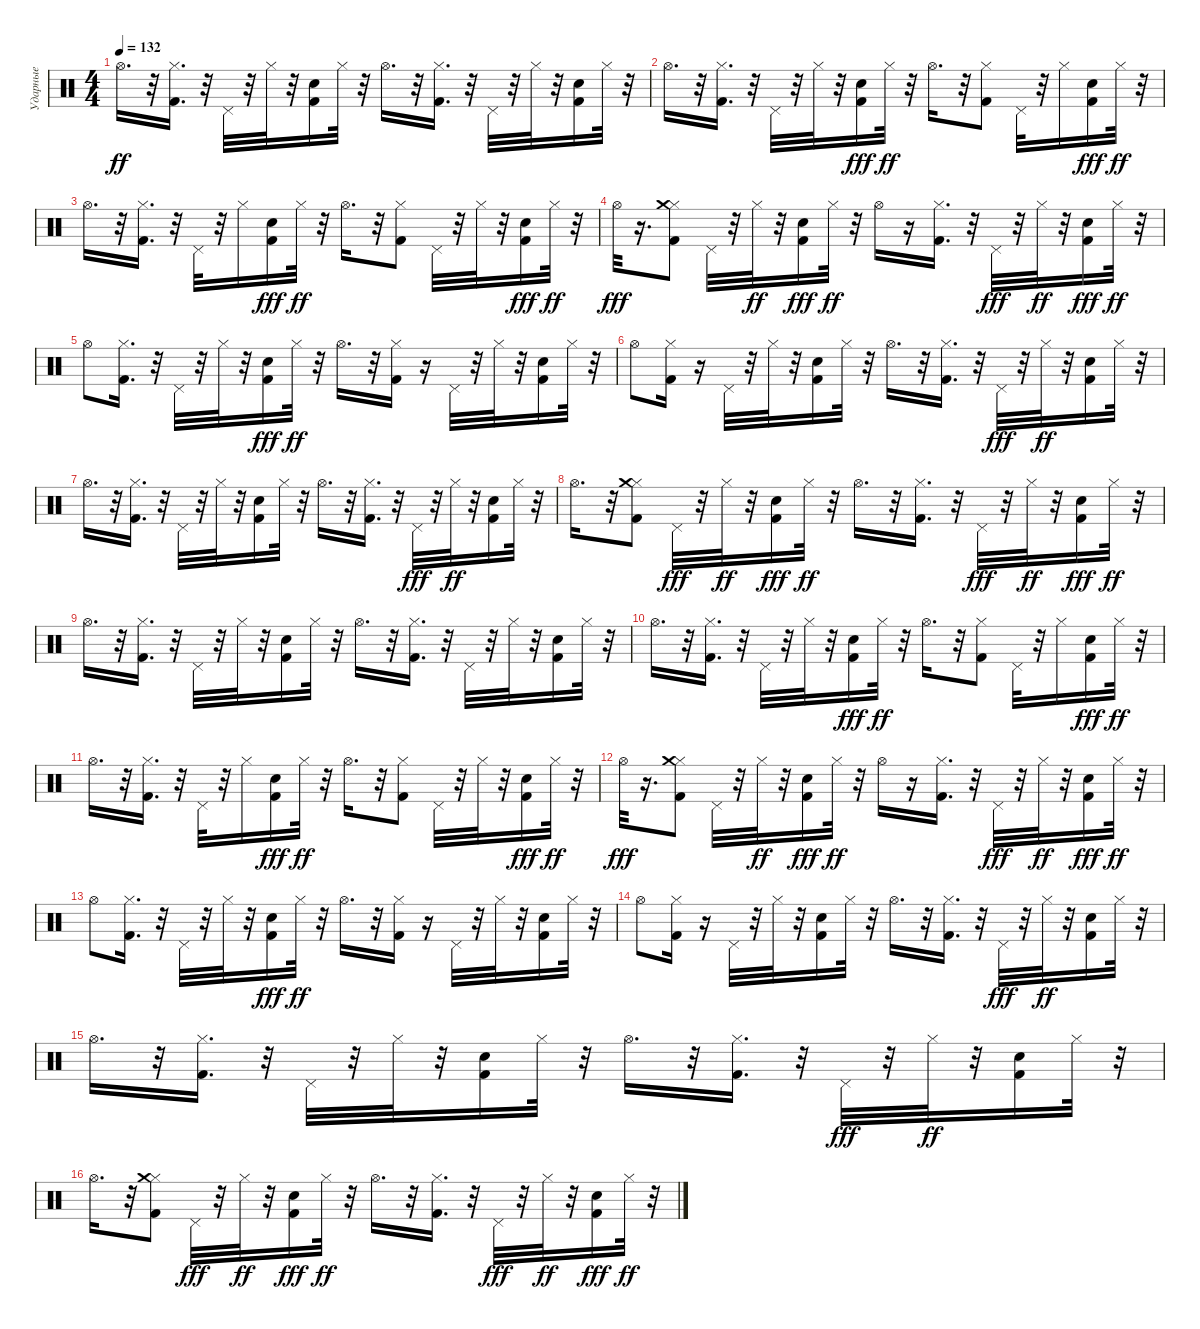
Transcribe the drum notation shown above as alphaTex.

\track ("Ударные" "Ударные") {instrument percussion}
\staff {score}
\articulation defaults
\ts (4 4)
\tempo 132
\clef neutral
\ks c "Hi-Hat (open)".16{d dy ff}
r.32 ("Kick (hit) 2" "Hi-Hat (closed)").16{d} r.32 "Pedal Hi-Hat (hit)".32 r.32 "Hi-Hat (closed)".32 r.32 ("Kick (hit) 2" "Snare (hit) 2").16 "Hi-Hat (closed)".32 r.32 "Hi-Hat (open)".16{d} r.32 ("Kick (hit) 2" "Hi-Hat (closed)").16{d} r.32 "Pedal Hi-Hat (hit)".32 r.32 "Hi-Hat (closed)".32 r.32 ("Kick (hit) 2" "Snare (hit) 2").16 "Hi-Hat (closed)".32 r.32 |
"Hi-Hat (open)".16{d} r.32 ("Kick (hit) 2" "Hi-Hat (closed)").16{d} r.32 "Pedal Hi-Hat (hit)".32 r.32 "Hi-Hat (closed)".32 r.32 ("Kick (hit) 2" "Snare (hit) 2").16{dy fff} "Hi-Hat (closed)".32{dy ff} r.32 "Hi-Hat (open)".16{d} r.32 ("Kick (hit) 2" "Hi-Hat (closed)").8 "Pedal Hi-Hat (hit)".32 r.32 "Hi-Hat (closed)".16 ("Kick (hit) 2" "Snare (hit) 2").16{dy fff} "Hi-Hat (closed)".32{dy ff} r.32 |
"Hi-Hat (open)".16{d} r.32 ("Kick (hit) 2" "Hi-Hat (closed)").16{d} r.32 "Pedal Hi-Hat (hit)".32 r.32 "Hi-Hat (closed)".16 ("Kick (hit) 2" "Snare (hit) 2").16{dy fff} "Hi-Hat (closed)".32{dy ff} r.32 "Hi-Hat (open)".16{d} r.32 ("Kick (hit) 2" "Hi-Hat (closed)").8 "Pedal Hi-Hat (hit)".32 r.32 "Hi-Hat (closed)".32 r.32 ("Kick (hit) 2" "Snare (hit) 2").16{dy fff} "Hi-Hat (closed)".32{dy ff} r.32 |
"Hi-Hat (open)".32{dy fff} r.16{d} ("Kick (hit) 2" "Hi-Hat (closed)" "Crash medium (hit)").8 "Pedal Hi-Hat (hit)".32 r.32 "Hi-Hat (closed)".32{dy ff} r.32 ("Kick (hit) 2" "Snare (hit) 2").16{dy fff} "Hi-Hat (closed)".32{dy ff} r.32 "Hi-Hat (open)".16 r.16 ("Kick (hit) 2" "Hi-Hat (closed)").16{d} r.32 "Pedal Hi-Hat (hit)".32{dy fff} r.32 "Hi-Hat (closed)".32{dy ff} r.32 ("Kick (hit) 2" "Snare (hit) 2").16{dy fff} "Hi-Hat (closed)".32{dy ff} r.32 |
"Hi-Hat (open)".8 ("Kick (hit) 2" "Hi-Hat (closed)").16{d} r.32 "Pedal Hi-Hat (hit)".32 r.32 "Hi-Hat (closed)".32 r.32 ("Kick (hit) 2" "Snare (hit) 2").16{dy fff} "Hi-Hat (closed)".32{dy ff} r.32 "Hi-Hat (open)".16{d} r.32 ("Kick (hit) 2" "Hi-Hat (closed)").16 r.16 "Pedal Hi-Hat (hit)".32 r.32 "Hi-Hat (closed)".32 r.32 ("Kick (hit) 2" "Snare (hit) 2").16 "Hi-Hat (closed)".32 r.32 |
"Hi-Hat (open)".8 ("Kick (hit) 2" "Hi-Hat (closed)").16 r.16 "Pedal Hi-Hat (hit)".32 r.32 "Hi-Hat (closed)".32 r.32 ("Kick (hit) 2" "Snare (hit) 2").16 "Hi-Hat (closed)".32 r.32 "Hi-Hat (open)".16{d} r.32 ("Kick (hit) 2" "Hi-Hat (closed)").16{d} r.32 "Pedal Hi-Hat (hit)".32{dy fff} r.32 "Hi-Hat (closed)".32{dy ff} r.32 ("Kick (hit) 2" "Snare (hit) 2").16 "Hi-Hat (closed)".32 r.32 |
"Hi-Hat (open)".16{d} r.32 ("Kick (hit) 2" "Hi-Hat (closed)").16{d} r.32 "Pedal Hi-Hat (hit)".32 r.32 "Hi-Hat (closed)".32 r.32 ("Kick (hit) 2" "Snare (hit) 2").16 "Hi-Hat (closed)".32 r.32 "Hi-Hat (open)".16{d} r.32 ("Kick (hit) 2" "Hi-Hat (closed)").16{d} r.32 "Pedal Hi-Hat (hit)".32{dy fff} r.32 "Hi-Hat (closed)".32{dy ff} r.32 ("Kick (hit) 2" "Snare (hit) 2").16 "Hi-Hat (closed)".32 r.32 |
"Hi-Hat (open)".16{d} r.32 ("Kick (hit) 2" "Hi-Hat (closed)" "Crash medium (hit)").8 "Pedal Hi-Hat (hit)".32{dy fff} r.32 "Hi-Hat (closed)".32{dy ff} r.32 ("Kick (hit) 2" "Snare (hit) 2").16{dy fff} "Hi-Hat (closed)".32{dy ff} r.32 "Hi-Hat (open)".16{d} r.32 ("Kick (hit) 2" "Hi-Hat (closed)").16{d} r.32 "Pedal Hi-Hat (hit)".32{dy fff} r.32 "Hi-Hat (closed)".32{dy ff} r.32 ("Kick (hit) 2" "Snare (hit) 2").16{dy fff} "Hi-Hat (closed)".32{dy ff} r.32 |
"Hi-Hat (open)".16{d} r.32 ("Kick (hit) 2" "Hi-Hat (closed)").16{d} r.32 "Pedal Hi-Hat (hit)".32 r.32 "Hi-Hat (closed)".32 r.32 ("Kick (hit) 2" "Snare (hit) 2").16 "Hi-Hat (closed)".32 r.32 "Hi-Hat (open)".16{d} r.32 ("Kick (hit) 2" "Hi-Hat (closed)").16{d} r.32 "Pedal Hi-Hat (hit)".32 r.32 "Hi-Hat (closed)".32 r.32 ("Kick (hit) 2" "Snare (hit) 2").16 "Hi-Hat (closed)".32 r.32 |
"Hi-Hat (open)".16{d} r.32 ("Kick (hit) 2" "Hi-Hat (closed)").16{d} r.32 "Pedal Hi-Hat (hit)".32 r.32 "Hi-Hat (closed)".32 r.32 ("Kick (hit) 2" "Snare (hit) 2").16{dy fff} "Hi-Hat (closed)".32{dy ff} r.32 "Hi-Hat (open)".16{d} r.32 ("Kick (hit) 2" "Hi-Hat (closed)").8 "Pedal Hi-Hat (hit)".32 r.32 "Hi-Hat (closed)".16 ("Kick (hit) 2" "Snare (hit) 2").16{dy fff} "Hi-Hat (closed)".32{dy ff} r.32 |
"Hi-Hat (open)".16{d} r.32 ("Kick (hit) 2" "Hi-Hat (closed)").16{d} r.32 "Pedal Hi-Hat (hit)".32 r.32 "Hi-Hat (closed)".16 ("Kick (hit) 2" "Snare (hit) 2").16{dy fff} "Hi-Hat (closed)".32{dy ff} r.32 "Hi-Hat (open)".16{d} r.32 ("Kick (hit) 2" "Hi-Hat (closed)").8 "Pedal Hi-Hat (hit)".32 r.32 "Hi-Hat (closed)".32 r.32 ("Kick (hit) 2" "Snare (hit) 2").16{dy fff} "Hi-Hat (closed)".32{dy ff} r.32 |
"Hi-Hat (open)".32{dy fff} r.16{d} ("Kick (hit) 2" "Hi-Hat (closed)" "Crash medium (hit)").8 "Pedal Hi-Hat (hit)".32 r.32 "Hi-Hat (closed)".32{dy ff} r.32 ("Kick (hit) 2" "Snare (hit) 2").16{dy fff} "Hi-Hat (closed)".32{dy ff} r.32 "Hi-Hat (open)".16 r.16 ("Kick (hit) 2" "Hi-Hat (closed)").16{d} r.32 "Pedal Hi-Hat (hit)".32{dy fff} r.32 "Hi-Hat (closed)".32{dy ff} r.32 ("Kick (hit) 2" "Snare (hit) 2").16{dy fff} "Hi-Hat (closed)".32{dy ff} r.32 |
"Hi-Hat (open)".8 ("Kick (hit) 2" "Hi-Hat (closed)").16{d} r.32 "Pedal Hi-Hat (hit)".32 r.32 "Hi-Hat (closed)".32 r.32 ("Kick (hit) 2" "Snare (hit) 2").16{dy fff} "Hi-Hat (closed)".32{dy ff} r.32 "Hi-Hat (open)".16{d} r.32 ("Kick (hit) 2" "Hi-Hat (closed)").16 r.16 "Pedal Hi-Hat (hit)".32 r.32 "Hi-Hat (closed)".32 r.32 ("Kick (hit) 2" "Snare (hit) 2").16 "Hi-Hat (closed)".32 r.32 |
"Hi-Hat (open)".8 ("Kick (hit) 2" "Hi-Hat (closed)").16 r.16 "Pedal Hi-Hat (hit)".32 r.32 "Hi-Hat (closed)".32 r.32 ("Kick (hit) 2" "Snare (hit) 2").16 "Hi-Hat (closed)".32 r.32 "Hi-Hat (open)".16{d} r.32 ("Kick (hit) 2" "Hi-Hat (closed)").16{d} r.32 "Pedal Hi-Hat (hit)".32{dy fff} r.32 "Hi-Hat (closed)".32{dy ff} r.32 ("Kick (hit) 2" "Snare (hit) 2").16 "Hi-Hat (closed)".32 r.32 |
"Hi-Hat (open)".16{d} r.32 ("Kick (hit) 2" "Hi-Hat (closed)").16{d} r.32 "Pedal Hi-Hat (hit)".32 r.32 "Hi-Hat (closed)".32 r.32 ("Kick (hit) 2" "Snare (hit) 2").16 "Hi-Hat (closed)".32 r.32 "Hi-Hat (open)".16{d} r.32 ("Kick (hit) 2" "Hi-Hat (closed)").16{d} r.32 "Pedal Hi-Hat (hit)".32{dy fff} r.32 "Hi-Hat (closed)".32{dy ff} r.32 ("Kick (hit) 2" "Snare (hit) 2").16 "Hi-Hat (closed)".32 r.32 |
"Hi-Hat (open)".16{d} r.32 ("Kick (hit) 2" "Hi-Hat (closed)" "Crash medium (hit)").8 "Pedal Hi-Hat (hit)".32{dy fff} r.32 "Hi-Hat (closed)".32{dy ff} r.32 ("Kick (hit) 2" "Snare (hit) 2").16{dy fff} "Hi-Hat (closed)".32{dy ff} r.32 "Hi-Hat (open)".16{d} r.32 ("Kick (hit) 2" "Hi-Hat (closed)").16{d} r.32 "Pedal Hi-Hat (hit)".32{dy fff} r.32 "Hi-Hat (closed)".32{dy ff} r.32 ("Kick (hit) 2" "Snare (hit) 2").16{dy fff} "Hi-Hat (closed)".32{dy ff} r.32
